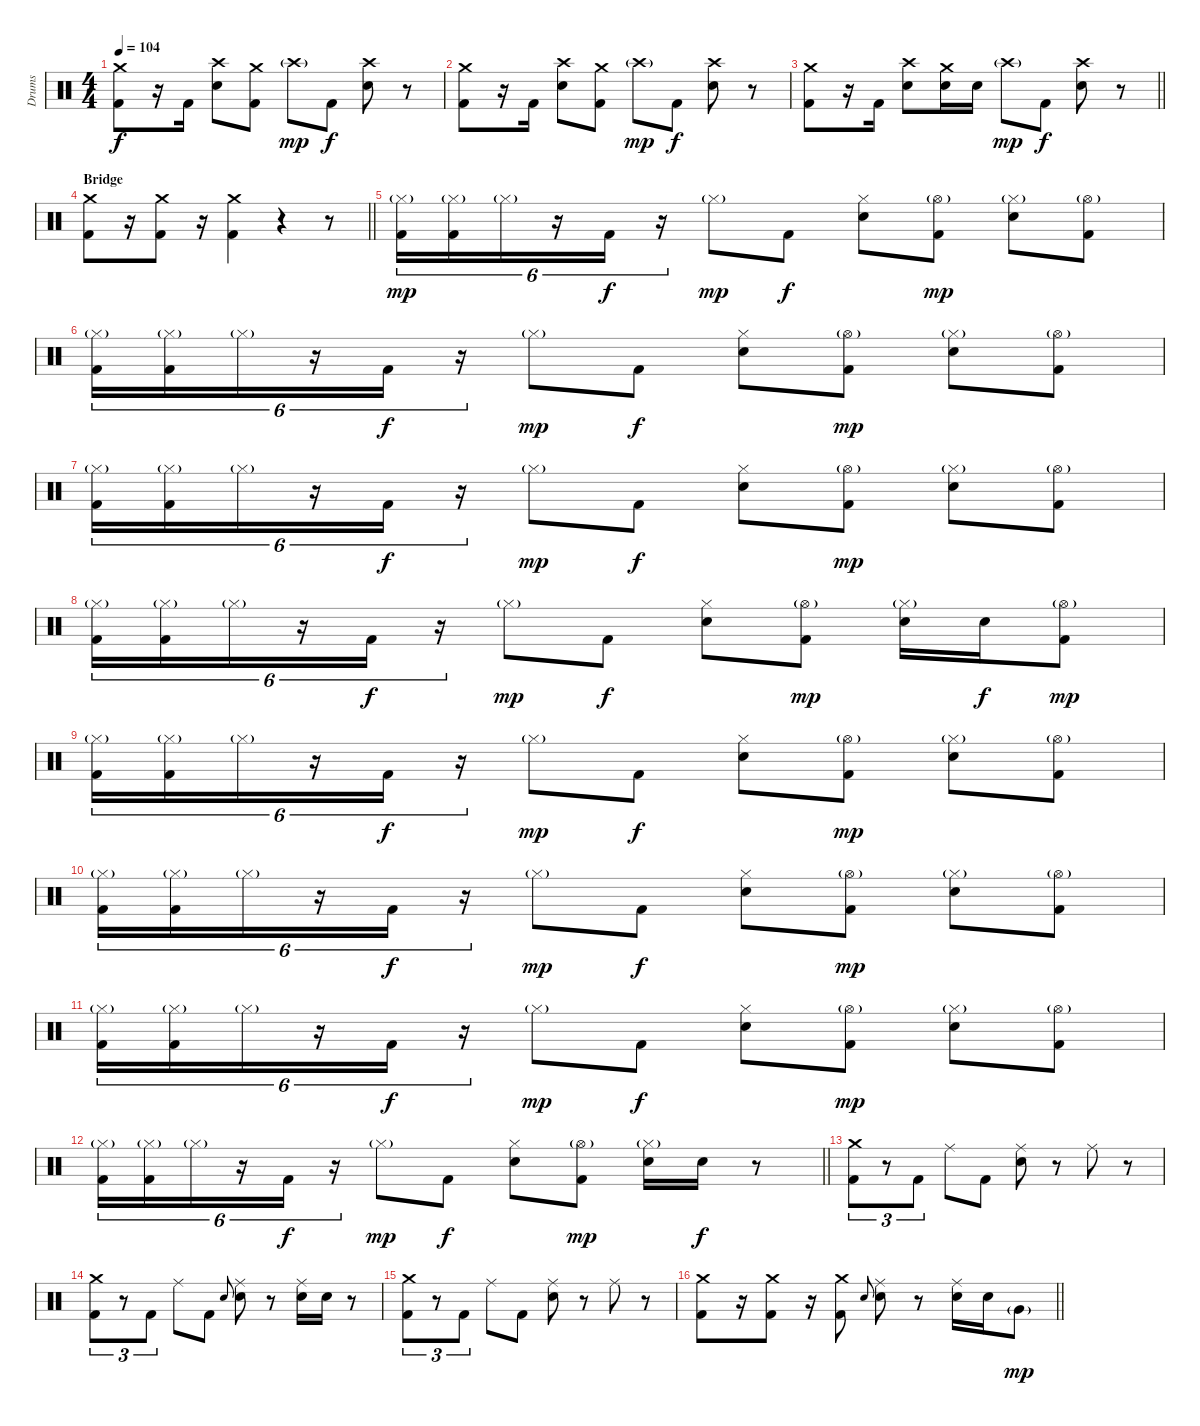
\track ("Drums" "Drums") {instrument percussion}
\staff {score}
\articulation defaults
\ts (4 4)
\tempo 104
\clef neutral
\ks c
("Crash medium (hit)" "Kick (hit) 2").8{dy f} r.16 "Kick (hit) 2".16 ("Crash high (hit)" "Electric Snare (hit)").8 ("Crash medium (hit)" "Kick (hit) 2").8 "Crash high (hit)"{g}.8{dy mp} "Kick (hit) 2".8{dy f} ("Crash high (hit)" "Electric Snare (hit)").8 r.8 |
("Crash medium (hit)" "Kick (hit) 2").8 r.16 "Kick (hit) 2".16 ("Crash high (hit)" "Electric Snare (hit)").8 ("Crash medium (hit)" "Kick (hit) 2").8 "Crash high (hit)"{g}.8{dy mp} "Kick (hit) 2".8{dy f} ("Crash high (hit)" "Electric Snare (hit)").8 r.8 |
\barLineRight lightlight
("Crash medium (hit)" "Kick (hit) 2").8 r.16 "Kick (hit) 2".16 ("Crash high (hit)" "Electric Snare (hit)").8 ("Crash medium (hit)" "Electric Snare (hit)").16 "Electric Snare (hit)".16 "Crash high (hit)"{g}.8{dy mp} "Kick (hit) 2".8{dy f} ("Crash high (hit)" "Electric Snare (hit)").8 r.8 |
\section ("" "Bridge")
\barLineRight lightlight
("Crash medium (hit)" "Kick (hit) 2").8 r.16 ("Crash medium (hit)" "Kick (hit) 2").8 r.16 ("Crash medium (hit)" "Kick (hit) 2").4 r.4 r.8 |
("Hi-Hat (closed)"{g} "Kick (hit) 2").16{tu (6 4) dy mp} ("Hi-Hat (closed)"{g} "Kick (hit) 2").16{tu (6 4)} "Hi-Hat (closed)"{g}.16{tu (6 4)} r.16{tu (6 4)} "Kick (hit) 2".16{tu (6 4) dy f} r.16{tu (6 4)} "Hi-Hat (closed)"{g}.8{dy mp} "Kick (hit) 2".8{dy f} ("Hi-Hat (closed)" "Electric Snare (hit)").8 ("Hi-Hat (open)"{g} "Kick (hit) 2").8{dy mp} ("Hi-Hat (closed)"{g} "Electric Snare (hit)").8 ("Hi-Hat (open)"{g} "Kick (hit) 2").8 |
("Hi-Hat (closed)"{g} "Kick (hit) 2").16{tu (6 4)} ("Hi-Hat (closed)"{g} "Kick (hit) 2").16{tu (6 4)} "Hi-Hat (closed)"{g}.16{tu (6 4)} r.16{tu (6 4)} "Kick (hit) 2".16{tu (6 4) dy f} r.16{tu (6 4)} "Hi-Hat (closed)"{g}.8{dy mp} "Kick (hit) 2".8{dy f} ("Hi-Hat (closed)" "Electric Snare (hit)").8 ("Hi-Hat (open)"{g} "Kick (hit) 2").8{dy mp} ("Hi-Hat (closed)"{g} "Electric Snare (hit)").8 ("Hi-Hat (open)"{g} "Kick (hit) 2").8 |
("Hi-Hat (closed)"{g} "Kick (hit) 2").16{tu (6 4)} ("Hi-Hat (closed)"{g} "Kick (hit) 2").16{tu (6 4)} "Hi-Hat (closed)"{g}.16{tu (6 4)} r.16{tu (6 4)} "Kick (hit) 2".16{tu (6 4) dy f} r.16{tu (6 4)} "Hi-Hat (closed)"{g}.8{dy mp} "Kick (hit) 2".8{dy f} ("Hi-Hat (closed)" "Electric Snare (hit)").8 ("Hi-Hat (open)"{g} "Kick (hit) 2").8{dy mp} ("Hi-Hat (closed)"{g} "Electric Snare (hit)").8 ("Hi-Hat (open)"{g} "Kick (hit) 2").8 |
("Hi-Hat (closed)"{g} "Kick (hit) 2").16{tu (6 4)} ("Hi-Hat (closed)"{g} "Kick (hit) 2").16{tu (6 4)} "Hi-Hat (closed)"{g}.16{tu (6 4)} r.16{tu (6 4)} "Kick (hit) 2".16{tu (6 4) dy f} r.16{tu (6 4)} "Hi-Hat (closed)"{g}.8{dy mp} "Kick (hit) 2".8{dy f} ("Hi-Hat (closed)" "Electric Snare (hit)").8 ("Hi-Hat (open)"{g} "Kick (hit) 2").8{dy mp} ("Hi-Hat (closed)"{g} "Electric Snare (hit)").16 "Electric Snare (hit)".16{dy f} ("Hi-Hat (open)"{g} "Kick (hit) 2").8{dy mp} |
("Hi-Hat (closed)"{g} "Kick (hit) 2").16{tu (6 4)} ("Hi-Hat (closed)"{g} "Kick (hit) 2").16{tu (6 4)} "Hi-Hat (closed)"{g}.16{tu (6 4)} r.16{tu (6 4)} "Kick (hit) 2".16{tu (6 4) dy f} r.16{tu (6 4)} "Hi-Hat (closed)"{g}.8{dy mp} "Kick (hit) 2".8{dy f} ("Hi-Hat (closed)" "Electric Snare (hit)").8 ("Hi-Hat (open)"{g} "Kick (hit) 2").8{dy mp} ("Hi-Hat (closed)"{g} "Electric Snare (hit)").8 ("Hi-Hat (open)"{g} "Kick (hit) 2").8 |
("Hi-Hat (closed)"{g} "Kick (hit) 2").16{tu (6 4)} ("Hi-Hat (closed)"{g} "Kick (hit) 2").16{tu (6 4)} "Hi-Hat (closed)"{g}.16{tu (6 4)} r.16{tu (6 4)} "Kick (hit) 2".16{tu (6 4) dy f} r.16{tu (6 4)} "Hi-Hat (closed)"{g}.8{dy mp} "Kick (hit) 2".8{dy f} ("Hi-Hat (closed)" "Electric Snare (hit)").8 ("Hi-Hat (open)"{g} "Kick (hit) 2").8{dy mp} ("Hi-Hat (closed)"{g} "Electric Snare (hit)").8 ("Hi-Hat (open)"{g} "Kick (hit) 2").8 |
("Hi-Hat (closed)"{g} "Kick (hit) 2").16{tu (6 4)} ("Hi-Hat (closed)"{g} "Kick (hit) 2").16{tu (6 4)} "Hi-Hat (closed)"{g}.16{tu (6 4)} r.16{tu (6 4)} "Kick (hit) 2".16{tu (6 4) dy f} r.16{tu (6 4)} "Hi-Hat (closed)"{g}.8{dy mp} "Kick (hit) 2".8{dy f} ("Hi-Hat (closed)" "Electric Snare (hit)").8 ("Hi-Hat (open)"{g} "Kick (hit) 2").8{dy mp} ("Hi-Hat (closed)"{g} "Electric Snare (hit)").8 ("Hi-Hat (open)"{g} "Kick (hit) 2").8 |
\barLineRight lightlight
("Hi-Hat (closed)"{g} "Kick (hit) 2").16{tu (6 4)} ("Hi-Hat (closed)"{g} "Kick (hit) 2").16{tu (6 4)} "Hi-Hat (closed)"{g}.16{tu (6 4)} r.16{tu (6 4)} "Kick (hit) 2".16{tu (6 4) dy f} r.16{tu (6 4)} "Hi-Hat (closed)"{g}.8{dy mp} "Kick (hit) 2".8{dy f} ("Hi-Hat (closed)" "Electric Snare (hit)").8 ("Hi-Hat (open)"{g} "Kick (hit) 2").8{dy mp} ("Hi-Hat (closed)"{g} "Electric Snare (hit)").16 "Electric Snare (hit)".16{dy f} r.8 |
("Crash medium (hit)" "Kick (hit) 2").8{tu (3 2)} r.8{tu (3 2)} "Kick (hit) 2".8{tu (3 2)} "Ride (middle)".8 "Kick (hit) 2".8 ("Ride (middle)" "Electric Snare (hit)").8 r.8 "Ride (middle)".8 r.8 |
("Crash medium (hit)" "Kick (hit) 2").8{tu (3 2)} r.8{tu (3 2)} "Kick (hit) 2".8{tu (3 2)} "Ride (middle)".8 "Kick (hit) 2".8 "Electric Snare (hit)".8{gr onbeat} ("Ride (middle)" "Electric Snare (hit)").8 r.8 ("Ride (middle)" "Electric Snare (hit)").16 "Electric Snare (hit)".16 r.8 |
("Crash medium (hit)" "Kick (hit) 2").8{tu (3 2)} r.8{tu (3 2)} "Kick (hit) 2".8{tu (3 2)} "Ride (middle)".8 "Kick (hit) 2".8 ("Ride (middle)" "Electric Snare (hit)").8 r.8 "Ride (middle)".8 r.8 |
\barLineRight lightlight
("Crash medium (hit)" "Kick (hit) 2").8 r.16 ("Crash medium (hit)" "Kick (hit) 2").8 r.16 ("Crash medium (hit)" "Kick (hit) 2").8 "Electric Snare (hit)".8{gr onbeat} ("Ride (middle)" "Electric Snare (hit)").8 r.8 ("Ride (middle)" "Electric Snare (hit)").16 "Electric Snare (hit)".16 "Very Low Tom (hit)"{g}.8{dy mp}
